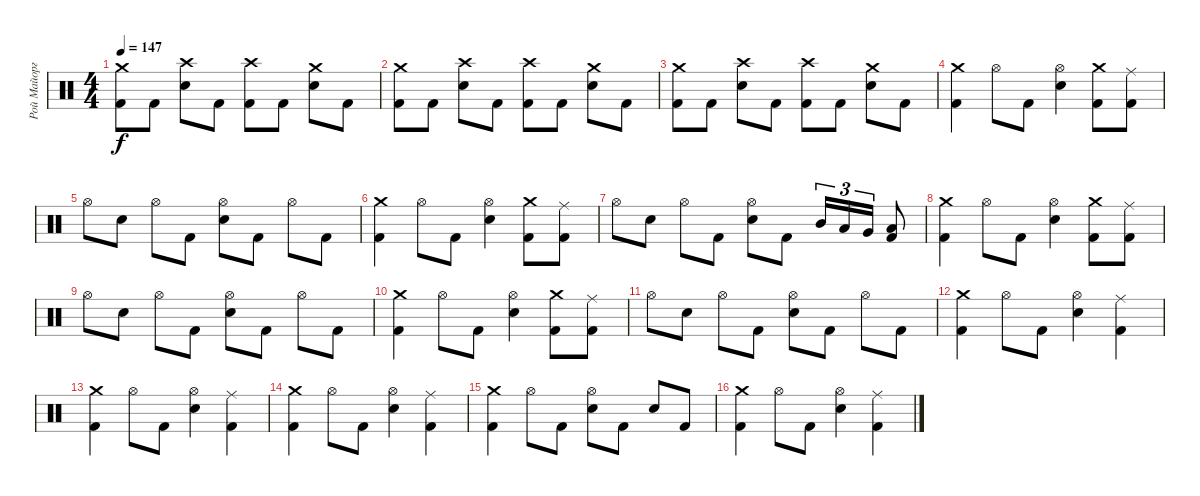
\track ("Рой Майорга" "Рой Майорг") {instrument percussion}
\staff {score}
\articulation defaults
\ts (4 4)
\tempo 147
\clef neutral
\ks c
("Crash medium (hit)" "Kick (hit) 2").8{dy f} "Kick (hit) 2".8 ("Crash high (hit)" "Electric Snare (hit)").8 "Kick (hit) 2".8 ("Crash high (hit)" "Kick (hit) 2").8 "Kick (hit) 2".8 ("Crash medium (hit)" "Electric Snare (hit)").8 "Kick (hit) 2".8 |
("Crash medium (hit)" "Kick (hit) 2").8 "Kick (hit) 2".8 ("Crash high (hit)" "Electric Snare (hit)").8 "Kick (hit) 2".8 ("Crash high (hit)" "Kick (hit) 2").8 "Kick (hit) 2".8 ("Crash medium (hit)" "Electric Snare (hit)").8 "Kick (hit) 2".8 |
("Crash medium (hit)" "Kick (hit) 2").8 "Kick (hit) 2".8 ("Crash high (hit)" "Electric Snare (hit)").8 "Kick (hit) 2".8 ("Crash high (hit)" "Kick (hit) 2").8 "Kick (hit) 2".8 ("Crash medium (hit)" "Electric Snare (hit)").8 "Kick (hit) 2".8 |
("Crash medium (hit)" "Kick (hit) 2").4 "Hi-Hat (open)".8 "Kick (hit) 2".8 ("Hi-Hat (open)" "Electric Snare (hit)").4 ("Crash medium (hit)" "Kick (hit) 2").8 ("Ride (middle)" "Kick (hit) 2").8 |
"Hi-Hat (open)".8 "Electric Snare (hit)".8 "Hi-Hat (open)".8 "Kick (hit) 2".8 ("Hi-Hat (open)" "Electric Snare (hit)").8 "Kick (hit) 2".8 "Hi-Hat (open)".8 "Kick (hit) 2".8 |
("Crash medium (hit)" "Kick (hit) 2").4 "Hi-Hat (open)".8 "Kick (hit) 2".8 ("Hi-Hat (open)" "Electric Snare (hit)").4 ("Crash medium (hit)" "Kick (hit) 2").8 ("Ride (middle)" "Kick (hit) 2").8 |
"Hi-Hat (open)".8 "Electric Snare (hit)".8 "Hi-Hat (open)".8 "Kick (hit) 2".8 ("Hi-Hat (open)" "Electric Snare (hit)").8 "Kick (hit) 2".8 "Mid Tom (hit)".16{tu (3 2)} "Low Tom (hit)".16{tu (3 2)} "Very Low Tom (hit)".16{tu (3 2)} ("Low Floor Tom (hit)" "Kick (hit) 2").8 |
("Crash medium (hit)" "Kick (hit) 2").4 "Hi-Hat (open)".8 "Kick (hit) 2".8 ("Hi-Hat (open)" "Electric Snare (hit)").4 ("Crash medium (hit)" "Kick (hit) 2").8 ("Ride (middle)" "Kick (hit) 2").8 |
"Hi-Hat (open)".8 "Electric Snare (hit)".8 "Hi-Hat (open)".8 "Kick (hit) 2".8 ("Hi-Hat (open)" "Electric Snare (hit)").8 "Kick (hit) 2".8 "Hi-Hat (open)".8 "Kick (hit) 2".8 |
("Crash medium (hit)" "Kick (hit) 2").4 "Hi-Hat (open)".8 "Kick (hit) 2".8 ("Hi-Hat (open)" "Electric Snare (hit)").4 ("Crash medium (hit)" "Kick (hit) 2").8 ("Ride (middle)" "Kick (hit) 2").8 |
"Hi-Hat (open)".8 "Electric Snare (hit)".8 "Hi-Hat (open)".8 "Kick (hit) 2".8 ("Hi-Hat (open)" "Electric Snare (hit)").8 "Kick (hit) 2".8 "Hi-Hat (open)".8 "Kick (hit) 2".8 |
("Crash medium (hit)" "Kick (hit) 2").4 "Hi-Hat (open)".8 "Kick (hit) 2".8 ("Hi-Hat (open)" "Electric Snare (hit)").4 ("Ride (middle)" "Kick (hit) 2").4 |
("Crash medium (hit)" "Kick (hit) 2").4 "Hi-Hat (open)".8 "Kick (hit) 2".8 ("Hi-Hat (open)" "Electric Snare (hit)").4 ("Ride (middle)" "Kick (hit) 2").4 |
("Crash medium (hit)" "Kick (hit) 2").4 "Hi-Hat (open)".8 "Kick (hit) 2".8 ("Hi-Hat (open)" "Electric Snare (hit)").4 ("Ride (middle)" "Kick (hit) 2").4 |
("Crash medium (hit)" "Kick (hit) 2").4 "Hi-Hat (open)".8 "Kick (hit) 2".8 ("Hi-Hat (open)" "Electric Snare (hit)").8 "Kick (hit) 2".8 "Electric Snare (hit)".8 "Kick (hit) 2".8 |
("Crash medium (hit)" "Kick (hit) 2").4 "Hi-Hat (open)".8 "Kick (hit) 2".8 ("Hi-Hat (open)" "Electric Snare (hit)").4 ("Ride (middle)" "Kick (hit) 2").4
